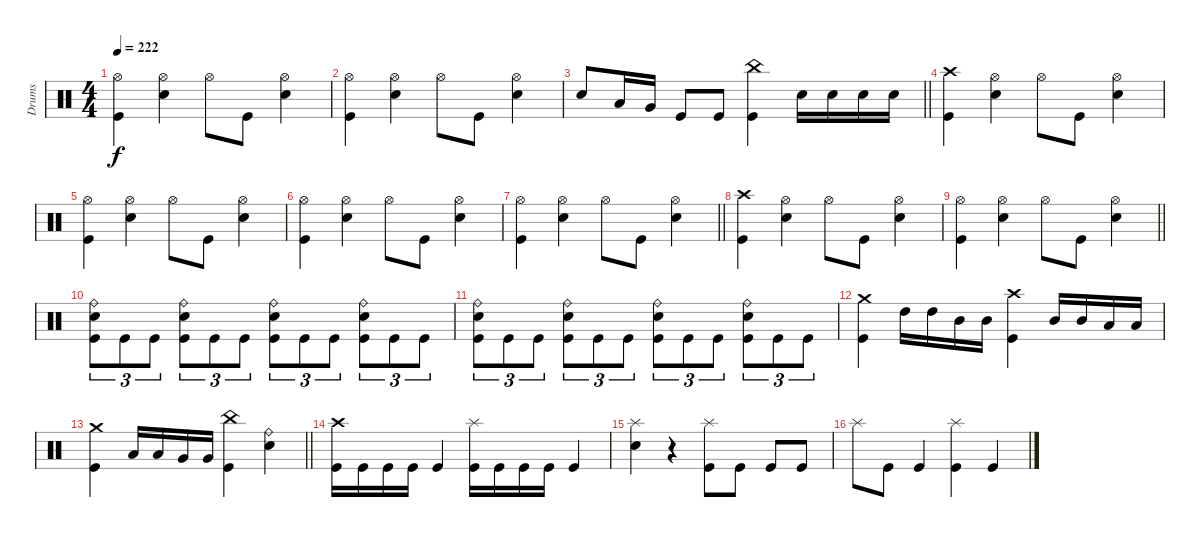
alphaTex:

\track ("Drums" "Drums") {instrument percussion}
\staff
\articulation defaults
\ts (4 4)
\tempo 222
\clef neutral
\ks c
("Hi-Hat (open)" "Kick (hit)").4{dy f} ("Hi-Hat (open)" "Electric Snare (hit)").4 "Hi-Hat (open)".8 "Kick (hit)".8 ("Hi-Hat (open)" "Electric Snare (hit)").4 |
("Hi-Hat (open)" "Kick (hit)").4 ("Hi-Hat (open)" "Electric Snare (hit)").4 "Hi-Hat (open)".8 "Kick (hit)".8 ("Hi-Hat (open)" "Electric Snare (hit)").4 |
\barLineRight lightlight "Electric Snare (hit)".8 "Low Tom (hit)".16 "Very Low Tom (hit)".16 "Kick (hit)".8 "Kick (hit)".8
("China (hit)" "Kick (hit)").4 "Electric Snare (hit)".16 "Electric Snare (hit)".16 "Electric Snare (hit)".16 "Electric Snare (hit)".16 |
("Crash high (hit)" "Kick (hit)").4 ("Hi-Hat (open)" "Electric Snare (hit)").4 "Hi-Hat (open)".8 "Kick (hit)".8 ("Hi-Hat (open)" "Electric Snare (hit)").4 |
("Hi-Hat (open)" "Kick (hit)").4 ("Hi-Hat (open)" "Electric Snare (hit)").4 "Hi-Hat (open)".8 "Kick (hit)".8 ("Hi-Hat (open)" "Electric Snare (hit)").4 |
("Hi-Hat (open)" "Kick (hit)").4 ("Hi-Hat (open)" "Electric Snare (hit)").4 "Hi-Hat (open)".8 "Kick (hit)".8 ("Hi-Hat (open)" "Electric Snare (hit)").4 |
\barLineRight lightlight
("Hi-Hat (open)" "Kick (hit)").4 ("Hi-Hat (open)" "Electric Snare (hit)").4 "Hi-Hat (open)".8 "Kick (hit)".8 ("Hi-Hat (open)" "Electric Snare (hit)").4 |
("Crash high (hit)" "Kick (hit)").4 ("Hi-Hat (open)" "Electric Snare (hit)").4 "Hi-Hat (open)".8 "Kick (hit)".8 ("Hi-Hat (open)" "Electric Snare (hit)").4 |
\barLineRight lightlight
("Hi-Hat (open)" "Kick (hit)").4 ("Hi-Hat (open)" "Electric Snare (hit)").4 "Hi-Hat (open)".8 "Kick (hit)".8 ("Hi-Hat (open)" "Electric Snare (hit)").4 |
("Ride (bell)" "Electric Snare (hit)" "Kick (hit)").8{tu (3 2)} "Kick (hit)".8{tu (3 2)} "Kick (hit)".8{tu (3 2)} ("Ride (bell)" "Electric Snare (hit)" "Kick (hit)").8{tu (3 2)} "Kick (hit)".8{tu (3 2)} "Kick (hit)".8{tu (3 2)} ("Ride (bell)" "Electric Snare (hit)" "Kick (hit)").8{tu (3 2)} "Kick (hit)".8{tu (3 2)} "Kick (hit)".8{tu (3 2)} ("Ride (bell)" "Electric Snare (hit)" "Kick (hit)").8{tu (3 2)} "Kick (hit)".8{tu (3 2)} "Kick (hit)".8{tu (3 2)} |
("Ride (bell)" "Electric Snare (hit)" "Kick (hit)").8{tu (3 2)} "Kick (hit)".8{tu (3 2)} "Kick (hit)".8{tu (3 2)} ("Ride (bell)" "Electric Snare (hit)" "Kick (hit)").8{tu (3 2)} "Kick (hit)".8{tu (3 2)} "Kick (hit)".8{tu (3 2)} ("Ride (bell)" "Electric Snare (hit)" "Kick (hit)").8{tu (3 2)} "Kick (hit)".8{tu (3 2)} "Kick (hit)".8{tu (3 2)} ("Ride (bell)" "Electric Snare (hit)" "Kick (hit)").8{tu (3 2)} "Kick (hit)".8{tu (3 2)} "Kick (hit)".8{tu (3 2)} |
("Crash medium (hit)" "Kick (hit)").4 "High Tom (hit)".16 "High Tom (hit)".16 "Mid Tom (hit)".16 "Mid Tom (hit)".16 ("Crash high (hit)" "Kick (hit)").4 "Mid Tom (hit)".16 "Mid Tom (hit)".16 "Low Tom (hit)".16 "Low Tom (hit)".16 |
\barLineRight lightlight
("Crash medium (hit)" "Kick (hit)").4 "Low Tom (hit)".16 "Low Tom (hit)".16 "Very Low Tom (hit)".16 "Very Low Tom (hit)".16 ("China (hit)" "Kick (hit)").4 ("Ride (bell)" "Electric Snare (hit)").4 |
\section ("" "")
("Crash high (hit)" "Kick (hit)").16 "Kick (hit)".16 "Kick (hit)".16 "Kick (hit)".16 "Kick (hit)".4 ("Splash (hit)" "Kick (hit)").16 "Kick (hit)".16 "Kick (hit)".16 "Kick (hit)".16 "Kick (hit)".4 |
("Splash (hit)" "Electric Snare (hit)").4 r.4 ("Splash (hit)" "Kick (hit)").8 "Kick (hit)".8 "Kick (hit)".8 "Kick (hit)".8 |
"Splash (hit)".8 "Kick (hit)".8 "Kick (hit)".4 ("Splash (hit)" "Kick (hit)").4 "Kick (hit)".4
